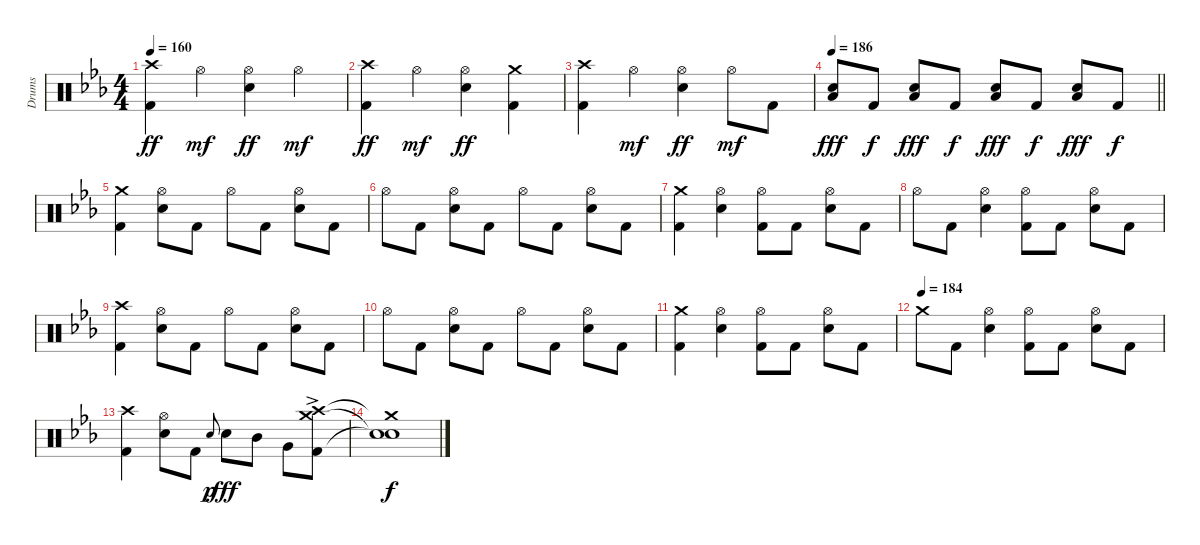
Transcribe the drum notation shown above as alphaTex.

\track ("Drums" "Drums") {instrument percussion}
\staff {score}
\articulation defaults
\ts (4 4)
\tempo 160
\clef neutral
\ks eb
("Crash high (hit)" "Kick (hit) 2").4{dy ff} "Hi-Hat (open)".4{dy mf} ("Hi-Hat (open)" "Electric Snare (hit)").4{dy ff} "Hi-Hat (open)".4{dy mf} |
("Crash high (hit)" "Kick (hit) 2").4{dy ff} "Hi-Hat (open)".4{dy mf} ("Hi-Hat (open)" "Electric Snare (hit)").4{dy ff} ("Crash medium (hit)" "Kick (hit) 2").4 |
("Crash high (hit)" "Kick (hit) 2").4 "Hi-Hat (open)".4{dy mf} ("Hi-Hat (open)" "Electric Snare (hit)").4{dy ff} "Hi-Hat (open)".8{dy mf} "Kick (hit) 2".8 |
\tempo 186
\barLineRight lightlight
("Electric Snare (hit)" "Low Floor Tom (hit)").8{dy fff} "Kick (hit) 2".8{dy f} ("Electric Snare (hit)" "Low Floor Tom (hit)").8{dy fff} "Kick (hit) 2".8{dy f} ("Electric Snare (hit)" "Low Floor Tom (hit)").8{dy fff} "Kick (hit) 2".8{dy f} ("Electric Snare (hit)" "Low Floor Tom (hit)").8{dy fff} "Kick (hit) 2".8{dy f} |
("Crash medium (hit)" "Kick (hit) 2").4 ("Hi-Hat (open)" "Electric Snare (hit)").8 "Kick (hit) 2".8 "Hi-Hat (open)".8 "Kick (hit) 2".8 ("Hi-Hat (open)" "Electric Snare (hit)").8 "Kick (hit) 2".8 |
"Hi-Hat (open)".8 "Kick (hit) 2".8 ("Hi-Hat (open)" "Electric Snare (hit)").8 "Kick (hit) 2".8 "Hi-Hat (open)".8 "Kick (hit) 2".8 ("Hi-Hat (open)" "Electric Snare (hit)").8 "Kick (hit) 2".8 |
("Crash medium (hit)" "Kick (hit) 2").4 ("Hi-Hat (open)" "Electric Snare (hit)").4 ("Hi-Hat (open)" "Kick (hit) 2").8 "Kick (hit) 2".8 ("Hi-Hat (open)" "Electric Snare (hit)").8 "Kick (hit) 2".8 |
"Hi-Hat (open)".8 "Kick (hit) 2".8 ("Hi-Hat (open)" "Electric Snare (hit)").4 ("Hi-Hat (open)" "Kick (hit) 2").8 "Kick (hit) 2".8 ("Hi-Hat (open)" "Electric Snare (hit)").8 "Kick (hit) 2".8 |
("Crash high (hit)" "Kick (hit) 2").4 ("Hi-Hat (open)" "Electric Snare (hit)").8 "Kick (hit) 2".8 "Hi-Hat (open)".8 "Kick (hit) 2".8 ("Hi-Hat (open)" "Electric Snare (hit)").8 "Kick (hit) 2".8 |
"Hi-Hat (open)".8 "Kick (hit) 2".8 ("Hi-Hat (open)" "Electric Snare (hit)").8 "Kick (hit) 2".8 "Hi-Hat (open)".8 "Kick (hit) 2".8 ("Hi-Hat (open)" "Electric Snare (hit)").8 "Kick (hit) 2".8 |
("Crash medium (hit)" "Kick (hit) 2").4 ("Hi-Hat (open)" "Electric Snare (hit)").4 ("Hi-Hat (open)" "Kick (hit) 2").8 "Kick (hit) 2".8 ("Hi-Hat (open)" "Electric Snare (hit)").8 "Kick (hit) 2".8 |
\tempo (184)
"Crash medium (hit)".8 "Kick (hit) 2".8 ("Hi-Hat (open)" "Electric Snare (hit)").4 ("Hi-Hat (open)" "Kick (hit) 2").8 "Kick (hit) 2".8 ("Hi-Hat (open)" "Electric Snare (hit)").8 "Kick (hit) 2".8 |
("Crash high (hit)" "Kick (hit) 2").4 ("Hi-Hat (open)" "Electric Snare (hit)").8 "Kick (hit) 2".8 "Electric Snare (hit)".8{gr onbeat dy p} "Electric Snare (hit)".8{dy fff} "Mid Tom (hit)".8 "Very Low Tom (hit)".8 ("Crash medium (hit)"{ac} "Crash high (hit)"{ac} "Kick (hit) 2"{ac}).8 |
("Snare (hit)"{t} "Crash medium (hit)"{t} "Snare (hit)"{t}).1{dy f}
